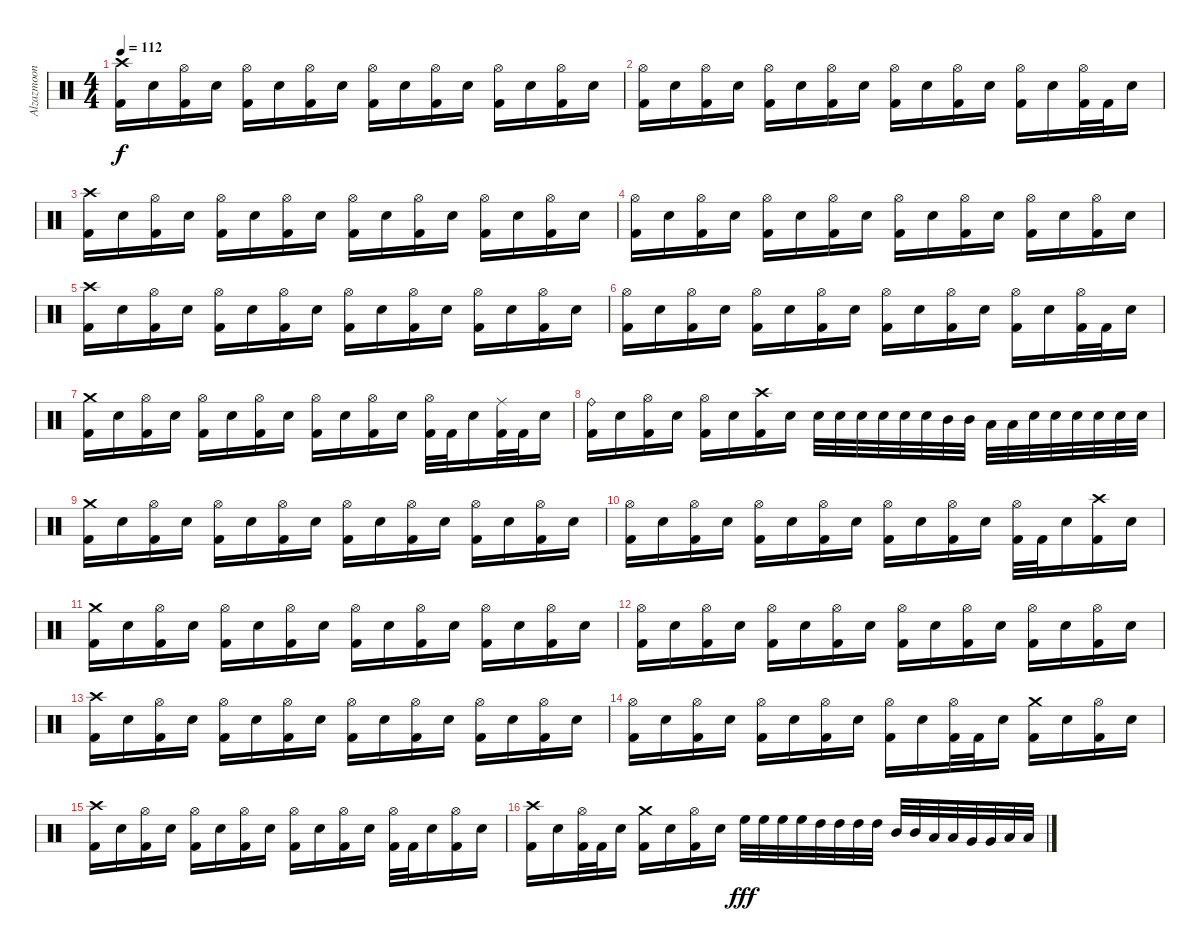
\track ("Alzazmoon" "Alzazmoon") {instrument percussion}
\staff {score}
\articulation defaults
\ts (4 4)
\tempo 112
\clef neutral
\ks c
("Crash high (hit)" "Kick (hit) 2").16{dy f} "Snare (hit) 2".16 ("Hi-Hat (open)" "Kick (hit) 2").16 "Snare (hit) 2".16 ("Hi-Hat (open)" "Kick (hit) 2").16 "Snare (hit) 2".16 ("Hi-Hat (open)" "Kick (hit) 2").16 "Snare (hit) 2".16 ("Hi-Hat (open)" "Kick (hit) 2").16 "Snare (hit) 2".16 ("Hi-Hat (open)" "Kick (hit) 2").16 "Snare (hit) 2".16 ("Hi-Hat (open)" "Kick (hit) 2").16 "Snare (hit) 2".16 ("Hi-Hat (open)" "Kick (hit) 2").16 "Snare (hit) 2".16 |
("Hi-Hat (open)" "Kick (hit) 2").16 "Snare (hit) 2".16 ("Hi-Hat (open)" "Kick (hit) 2").16 "Snare (hit) 2".16 ("Hi-Hat (open)" "Kick (hit) 2").16 "Snare (hit) 2".16 ("Hi-Hat (open)" "Kick (hit) 2").16 "Snare (hit) 2".16 ("Hi-Hat (open)" "Kick (hit) 2").16 "Snare (hit) 2".16 ("Hi-Hat (open)" "Kick (hit) 2").16 "Snare (hit) 2".16 ("Hi-Hat (open)" "Kick (hit) 2").16 "Snare (hit) 2".16 ("Hi-Hat (open)" "Kick (hit) 2").32 "Kick (hit) 2".32 "Snare (hit) 2".16 |
("Crash high (hit)" "Kick (hit) 2").16 "Snare (hit) 2".16 ("Hi-Hat (open)" "Kick (hit) 2").16 "Snare (hit) 2".16 ("Hi-Hat (open)" "Kick (hit) 2").16 "Snare (hit) 2".16 ("Hi-Hat (open)" "Kick (hit) 2").16 "Snare (hit) 2".16 ("Hi-Hat (open)" "Kick (hit) 2").16 "Snare (hit) 2".16 ("Hi-Hat (open)" "Kick (hit) 2").16 "Snare (hit) 2".16 ("Hi-Hat (open)" "Kick (hit) 2").16 "Snare (hit) 2".16 ("Hi-Hat (open)" "Kick (hit) 2").16 "Snare (hit) 2".16 |
("Hi-Hat (open)" "Kick (hit) 2").16 "Snare (hit) 2".16 ("Hi-Hat (open)" "Kick (hit) 2").16 "Snare (hit) 2".16 ("Hi-Hat (open)" "Kick (hit) 2").16 "Snare (hit) 2".16 ("Hi-Hat (open)" "Kick (hit) 2").16 "Snare (hit) 2".16 ("Hi-Hat (open)" "Kick (hit) 2").16 "Snare (hit) 2".16 ("Hi-Hat (open)" "Kick (hit) 2").16 "Snare (hit) 2".16 ("Hi-Hat (open)" "Kick (hit) 2").16 "Snare (hit) 2".16 ("Hi-Hat (open)" "Kick (hit) 2").16 "Snare (hit) 2".16 |
("Crash high (hit)" "Kick (hit) 2").16 "Snare (hit) 2".16 ("Hi-Hat (open)" "Kick (hit) 2").16 "Snare (hit) 2".16 ("Hi-Hat (open)" "Kick (hit) 2").16 "Snare (hit) 2".16 ("Hi-Hat (open)" "Kick (hit) 2").16 "Snare (hit) 2".16 ("Hi-Hat (open)" "Kick (hit) 2").16 "Snare (hit) 2".16 ("Hi-Hat (open)" "Kick (hit) 2").16 "Snare (hit) 2".16 ("Hi-Hat (open)" "Kick (hit) 2").16 "Snare (hit) 2".16 ("Hi-Hat (open)" "Kick (hit) 2").16 "Snare (hit) 2".16 |
("Hi-Hat (open)" "Kick (hit) 2").16 "Snare (hit) 2".16 ("Hi-Hat (open)" "Kick (hit) 2").16 "Snare (hit) 2".16 ("Hi-Hat (open)" "Kick (hit) 2").16 "Snare (hit) 2".16 ("Hi-Hat (open)" "Kick (hit) 2").16 "Snare (hit) 2".16 ("Hi-Hat (open)" "Kick (hit) 2").16 "Snare (hit) 2".16 ("Hi-Hat (open)" "Kick (hit) 2").16 "Snare (hit) 2".16 ("Hi-Hat (open)" "Kick (hit) 2").16 "Snare (hit) 2".16 ("Hi-Hat (open)" "Kick (hit) 2").32 "Kick (hit) 2".32 "Snare (hit) 2".16 |
("Crash medium (hit)" "Kick (hit) 2").16 "Snare (hit) 2".16 ("Hi-Hat (open)" "Kick (hit) 2").16 "Snare (hit) 2".16 ("Hi-Hat (open)" "Kick (hit) 2").16 "Snare (hit) 2".16 ("Hi-Hat (open)" "Kick (hit) 2").16 "Snare (hit) 2".16 ("Hi-Hat (open)" "Kick (hit) 2").16 "Snare (hit) 2".16 ("Hi-Hat (open)" "Kick (hit) 2").16 "Snare (hit) 2".16 ("Hi-Hat (open)" "Kick (hit) 2").32 "Kick (hit) 2".32 "Snare (hit) 2".16 ("Ride (middle)" "Kick (hit) 2").32 "Kick (hit) 2".32 "Snare (hit) 2".16 |
("Ride (bell)" "Kick (hit) 2").16 "Snare (hit) 2".16 ("Hi-Hat (open)" "Kick (hit) 2").16 "Snare (hit) 2".16 ("Hi-Hat (open)" "Kick (hit) 2").16 "Snare (hit) 2".16 ("Crash high (hit)" "Kick (hit) 2").16 "Snare (hit) 2".16 "Snare (hit) 2".32 "Snare (hit) 2".32 "Snare (hit) 2".32 "Snare (hit) 2".32 "Snare (hit) 2".32 "Snare (hit) 2".32 "Mid Tom (hit)".32 "Mid Tom (hit)".32 "Low Tom (hit)".32 "Low Tom (hit)".32 "Snare (hit) 2".32 "Snare (hit) 2".32 "Snare (hit) 2".32 "Snare (hit) 2".32 "Snare (hit) 2".32 "Snare (hit) 2".32 |
("Crash medium (hit)" "Kick (hit) 2").16 "Snare (hit) 2".16 ("Hi-Hat (open)" "Kick (hit) 2").16 "Snare (hit) 2".16 ("Hi-Hat (open)" "Kick (hit) 2").16 "Snare (hit) 2".16 ("Hi-Hat (open)" "Kick (hit) 2").16 "Snare (hit) 2".16 ("Hi-Hat (open)" "Kick (hit) 2").16 "Snare (hit) 2".16 ("Hi-Hat (open)" "Kick (hit) 2").16 "Snare (hit) 2".16 ("Hi-Hat (open)" "Kick (hit) 2").16 "Snare (hit) 2".16 ("Hi-Hat (open)" "Kick (hit) 2").16 "Snare (hit) 2".16 |
("Hi-Hat (open)" "Kick (hit) 2").16 "Snare (hit) 2".16 ("Hi-Hat (open)" "Kick (hit) 2").16 "Snare (hit) 2".16 ("Hi-Hat (open)" "Kick (hit) 2").16 "Snare (hit) 2".16 ("Hi-Hat (open)" "Kick (hit) 2").16 "Snare (hit) 2".16 ("Hi-Hat (open)" "Kick (hit) 2").16 "Snare (hit) 2".16 ("Hi-Hat (open)" "Kick (hit) 2").16 "Snare (hit) 2".16 ("Hi-Hat (open)" "Kick (hit) 2").32 "Kick (hit) 2".32 "Snare (hit) 2".16 ("Crash high (hit)" "Kick (hit) 2").16 "Snare (hit) 2".16 |
("Crash medium (hit)" "Kick (hit) 2").16 "Snare (hit) 2".16 ("Hi-Hat (open)" "Kick (hit) 2").16 "Snare (hit) 2".16 ("Hi-Hat (open)" "Kick (hit) 2").16 "Snare (hit) 2".16 ("Hi-Hat (open)" "Kick (hit) 2").16 "Snare (hit) 2".16 ("Hi-Hat (open)" "Kick (hit) 2").16 "Snare (hit) 2".16 ("Hi-Hat (open)" "Kick (hit) 2").16 "Snare (hit) 2".16 ("Hi-Hat (open)" "Kick (hit) 2").16 "Snare (hit) 2".16 ("Hi-Hat (open)" "Kick (hit) 2").16 "Snare (hit) 2".16 |
("Hi-Hat (open)" "Kick (hit) 2").16 "Snare (hit) 2".16 ("Hi-Hat (open)" "Kick (hit) 2").16 "Snare (hit) 2".16 ("Hi-Hat (open)" "Kick (hit) 2").16 "Snare (hit) 2".16 ("Hi-Hat (open)" "Kick (hit) 2").16 "Snare (hit) 2".16 ("Hi-Hat (open)" "Kick (hit) 2").16 "Snare (hit) 2".16 ("Hi-Hat (open)" "Kick (hit) 2").16 "Snare (hit) 2".16 ("Hi-Hat (open)" "Kick (hit) 2").16 "Snare (hit) 2".16 ("Hi-Hat (open)" "Kick (hit) 2").16 "Snare (hit) 2".16 |
("Crash high (hit)" "Kick (hit) 2").16 "Snare (hit) 2".16 ("Hi-Hat (open)" "Kick (hit) 2").16 "Snare (hit) 2".16 ("Hi-Hat (open)" "Kick (hit) 2").16 "Snare (hit) 2".16 ("Hi-Hat (open)" "Kick (hit) 2").16 "Snare (hit) 2".16 ("Hi-Hat (open)" "Kick (hit) 2").16 "Snare (hit) 2".16 ("Hi-Hat (open)" "Kick (hit) 2").16 "Snare (hit) 2".16 ("Hi-Hat (open)" "Kick (hit) 2").16 "Snare (hit) 2".16 ("Hi-Hat (open)" "Kick (hit) 2").16 "Snare (hit) 2".16 |
("Hi-Hat (open)" "Kick (hit) 2").16 "Snare (hit) 2".16 ("Hi-Hat (open)" "Kick (hit) 2").16 "Snare (hit) 2".16 ("Hi-Hat (open)" "Kick (hit) 2").16 "Snare (hit) 2".16 ("Hi-Hat (open)" "Kick (hit) 2").16 "Snare (hit) 2".16 ("Hi-Hat (open)" "Kick (hit) 2").16 "Snare (hit) 2".16 ("Hi-Hat (open)" "Kick (hit) 2").32 "Kick (hit) 2".32 "Snare (hit) 2".16 ("Crash medium (hit)" "Kick (hit) 2").16 "Snare (hit) 2".16 ("Hi-Hat (open)" "Kick (hit) 2").16 "Snare (hit) 2".16 |
("Crash high (hit)" "Kick (hit) 2").16 "Snare (hit) 2".16 ("Hi-Hat (open)" "Kick (hit) 2").16 "Snare (hit) 2".16 ("Hi-Hat (open)" "Kick (hit) 2").16 "Snare (hit) 2".16 ("Hi-Hat (open)" "Kick (hit) 2").16 "Snare (hit) 2".16 ("Hi-Hat (open)" "Kick (hit) 2").16 "Snare (hit) 2".16 ("Hi-Hat (open)" "Kick (hit) 2").16 "Snare (hit) 2".16 ("Hi-Hat (open)" "Kick (hit) 2").32 "Kick (hit) 2".32 "Snare (hit) 2".16 ("Hi-Hat (open)" "Kick (hit) 2").16 "Snare (hit) 2".16 |
("Crash high (hit)" "Kick (hit) 2").16 "Snare (hit) 2".16 ("Hi-Hat (open)" "Kick (hit) 2").32 "Kick (hit) 2".32 "Snare (hit) 2".16 ("Crash medium (hit)" "Kick (hit) 2").16 "Snare (hit) 2".16 ("Hi-Hat (open)" "Kick (hit) 2").16 "Snare (hit) 2".16 "High Floor Tom (hit)".32{dy fff} "High Floor Tom (hit)".32 "High Floor Tom (hit)".32 "High Floor Tom (hit)".32 "High Tom (hit)".32 "High Tom (hit)".32 "High Tom (hit)".32 "High Tom (hit)".32 "Mid Tom (hit)".32 "Mid Tom (hit)".32 "Low Tom (hit)".32 "Low Tom (hit)".32 "Very Low Tom (hit)".32 "Very Low Tom (hit)".32 "Low Floor Tom (hit)".32 "Low Floor Tom (hit)".32
